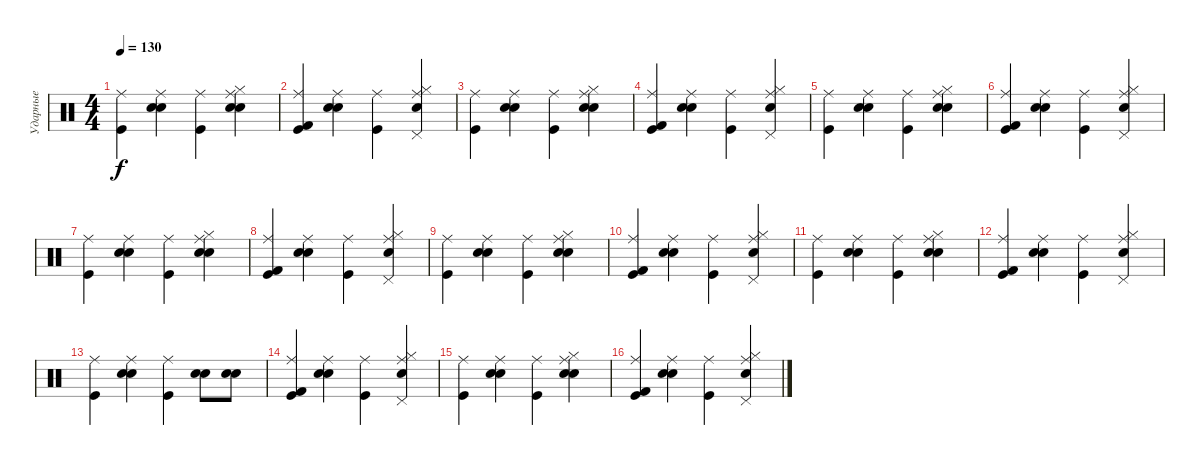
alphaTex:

\track ("Ударные" "Ударные") {instrument percussion}
\staff {score}
\articulation defaults
\ts (4 4)
\tempo 130
\clef neutral
\ks c
("Kick (hit)" "Ride (middle)").4{dy f} ("Electric Snare (hit)" "Electric Snare (hit)" "Ride (middle)").4 ("Kick (hit)" "Ride (middle)").4 ("Electric Snare (hit)" "Electric Snare (hit)" "Hi-Hat (closed)" "Ride (middle)").4 |
("Kick (hit)" "Kick (hit) 2" "Ride (middle)").4 ("Electric Snare (hit)" "Electric Snare (hit)" "Ride (middle)").4 ("Kick (hit)" "Ride (middle)").4 ("Electric Snare (hit)" "Pedal Hi-Hat (hit)" "Hi-Hat (closed)" "Ride (middle)").4 |
("Kick (hit)" "Ride (middle)").4 ("Electric Snare (hit)" "Electric Snare (hit)" "Ride (middle)").4 ("Kick (hit)" "Ride (middle)").4 ("Electric Snare (hit)" "Electric Snare (hit)" "Hi-Hat (closed)" "Ride (middle)").4 |
("Kick (hit)" "Kick (hit) 2" "Ride (middle)").4 ("Electric Snare (hit)" "Electric Snare (hit)" "Ride (middle)").4 ("Kick (hit)" "Ride (middle)").4 ("Electric Snare (hit)" "Pedal Hi-Hat (hit)" "Hi-Hat (closed)" "Ride (middle)").4 |
("Kick (hit)" "Ride (middle)").4 ("Electric Snare (hit)" "Electric Snare (hit)" "Ride (middle)").4 ("Kick (hit)" "Ride (middle)").4 ("Electric Snare (hit)" "Electric Snare (hit)" "Hi-Hat (closed)" "Ride (middle)").4 |
("Kick (hit)" "Kick (hit) 2" "Ride (middle)").4 ("Electric Snare (hit)" "Electric Snare (hit)" "Ride (middle)").4 ("Kick (hit)" "Ride (middle)").4 ("Electric Snare (hit)" "Pedal Hi-Hat (hit)" "Hi-Hat (closed)" "Ride (middle)").4 |
("Kick (hit)" "Ride (middle)").4 ("Electric Snare (hit)" "Electric Snare (hit)" "Ride (middle)").4 ("Kick (hit)" "Ride (middle)").4 ("Electric Snare (hit)" "Electric Snare (hit)" "Hi-Hat (closed)" "Ride (middle)").4 |
("Kick (hit)" "Kick (hit) 2" "Ride (middle)").4 ("Electric Snare (hit)" "Electric Snare (hit)" "Ride (middle)").4 ("Kick (hit)" "Ride (middle)").4 ("Electric Snare (hit)" "Pedal Hi-Hat (hit)" "Hi-Hat (closed)" "Ride (middle)").4 |
("Kick (hit)" "Ride (middle)").4 ("Electric Snare (hit)" "Electric Snare (hit)" "Ride (middle)").4 ("Kick (hit)" "Ride (middle)").4 ("Electric Snare (hit)" "Electric Snare (hit)" "Hi-Hat (closed)" "Ride (middle)").4 |
("Kick (hit)" "Kick (hit) 2" "Ride (middle)").4 ("Electric Snare (hit)" "Electric Snare (hit)" "Ride (middle)").4 ("Kick (hit)" "Ride (middle)").4 ("Electric Snare (hit)" "Pedal Hi-Hat (hit)" "Hi-Hat (closed)" "Ride (middle)").4 |
("Kick (hit)" "Ride (middle)").4 ("Electric Snare (hit)" "Electric Snare (hit)" "Ride (middle)").4 ("Kick (hit)" "Ride (middle)").4 ("Electric Snare (hit)" "Electric Snare (hit)" "Hi-Hat (closed)" "Ride (middle)").4 |
("Kick (hit)" "Kick (hit) 2" "Ride (middle)").4 ("Electric Snare (hit)" "Electric Snare (hit)" "Ride (middle)").4 ("Kick (hit)" "Ride (middle)").4 ("Electric Snare (hit)" "Pedal Hi-Hat (hit)" "Hi-Hat (closed)" "Ride (middle)").4 |
("Kick (hit)" "Ride (middle)").4 ("Electric Snare (hit)" "Electric Snare (hit)" "Ride (middle)").4 ("Kick (hit)" "Ride (middle)").4 ("Electric Snare (hit)" "Electric Snare (hit)").8 ("Electric Snare (hit)" "Electric Snare (hit)").8 |
("Kick (hit)" "Kick (hit) 2" "Ride (middle)").4 ("Electric Snare (hit)" "Electric Snare (hit)" "Ride (middle)").4 ("Kick (hit)" "Ride (middle)").4 ("Electric Snare (hit)" "Pedal Hi-Hat (hit)" "Hi-Hat (closed)" "Ride (middle)").4 |
("Kick (hit)" "Ride (middle)").4 ("Electric Snare (hit)" "Electric Snare (hit)" "Ride (middle)").4 ("Kick (hit)" "Ride (middle)").4 ("Electric Snare (hit)" "Electric Snare (hit)" "Hi-Hat (closed)" "Ride (middle)").4 |
("Kick (hit)" "Kick (hit) 2" "Ride (middle)").4 ("Electric Snare (hit)" "Electric Snare (hit)" "Ride (middle)").4 ("Kick (hit)" "Ride (middle)").4 ("Electric Snare (hit)" "Pedal Hi-Hat (hit)" "Hi-Hat (closed)" "Ride (middle)").4
